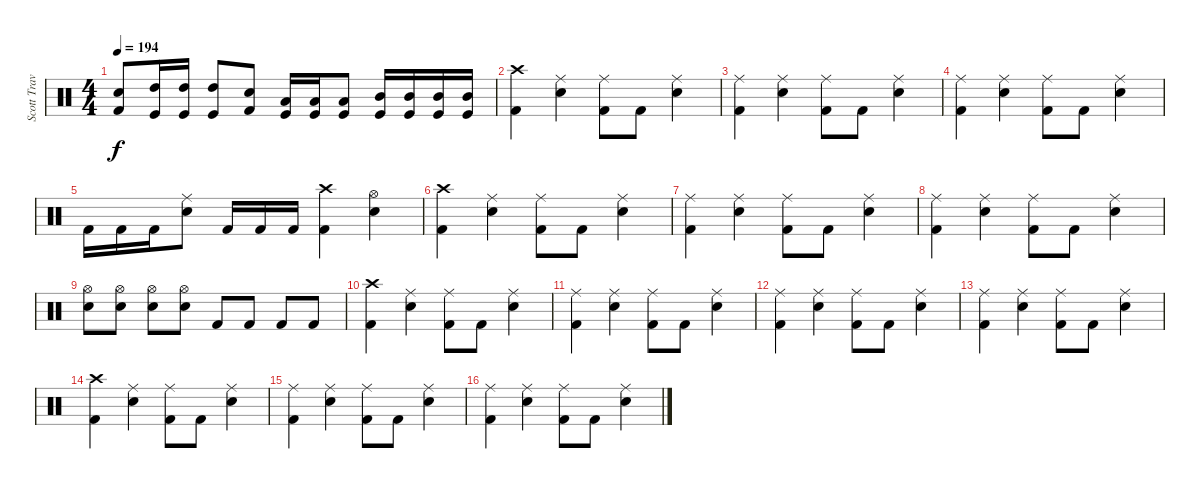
\track ("Scott Travis" "Scott Trav") {instrument percussion}
\staff {score}
\articulation defaults
\ts (4 4)
\tempo 194
\clef neutral
\ks c
("Kick (hit) 2" "Snare (hit) 2").8{dy f} ("High Tom (hit)" "Kick (hit)").16 ("High Tom (hit)" "Kick (hit)").16 ("High Tom (hit)" "Kick (hit)").8 ("Kick (hit) 2" "Snare (hit) 2").8 ("Low Tom (hit)" "Kick (hit)").16 ("Low Tom (hit)" "Kick (hit)").16 ("Low Tom (hit)" "Kick (hit)").8 ("Mid Tom (hit)" "Kick (hit)").16 ("Mid Tom (hit)" "Kick (hit)").16 ("Mid Tom (hit)" "Kick (hit)").16 ("Mid Tom (hit)" "Kick (hit)").16 |
("Kick (hit) 2" "Crash high (hit)").4 ("Ride (middle)" "Snare (hit) 2").4 ("Ride (middle)" "Kick (hit) 2").8 "Kick (hit) 2".8 ("Snare (hit) 2" "Ride (middle)").4 |
("Kick (hit) 2" "Ride (middle)").4 ("Ride (middle)" "Snare (hit) 2").4 ("Ride (middle)" "Kick (hit) 2").8 "Kick (hit) 2".8 ("Snare (hit) 2" "Ride (middle)").4 |
("Kick (hit) 2" "Ride (middle)").4 ("Ride (middle)" "Snare (hit) 2").4 ("Ride (middle)" "Kick (hit) 2").8 "Kick (hit) 2".8 ("Snare (hit) 2" "Ride (middle)").4 |
"Kick (hit) 2".16 "Kick (hit) 2".16 "Kick (hit) 2".16 ("Ride (middle)" "Snare (hit) 2").8 "Kick (hit) 2".16 "Kick (hit) 2".16 "Kick (hit) 2".16 ("Crash high (hit)" "Kick (hit) 2").4 ("Hi-Hat (open)" "Snare (hit) 2").4 |
("Kick (hit) 2" "Crash high (hit)").4 ("Ride (middle)" "Snare (hit) 2").4 ("Ride (middle)" "Kick (hit) 2").8 "Kick (hit) 2".8 ("Snare (hit) 2" "Ride (middle)").4 |
("Kick (hit) 2" "Ride (middle)").4 ("Ride (middle)" "Snare (hit) 2").4 ("Ride (middle)" "Kick (hit) 2").8 "Kick (hit) 2".8 ("Snare (hit) 2" "Ride (middle)").4 |
("Kick (hit) 2" "Ride (middle)").4 ("Ride (middle)" "Snare (hit) 2").4 ("Ride (middle)" "Kick (hit) 2").8 "Kick (hit) 2".8 ("Snare (hit) 2" "Ride (middle)").4 |
("Hi-Hat (open)" "Snare (hit) 2").8 ("Hi-Hat (open)" "Snare (hit) 2").8 ("Hi-Hat (open)" "Snare (hit) 2").8 ("Hi-Hat (open)" "Snare (hit) 2").8 "Kick (hit) 2".8 "Kick (hit) 2".8 "Kick (hit) 2".8 "Kick (hit) 2".8 |
("Kick (hit) 2" "Crash high (hit)").4 ("Ride (middle)" "Snare (hit) 2").4 ("Ride (middle)" "Kick (hit) 2").8 "Kick (hit) 2".8 ("Snare (hit) 2" "Ride (middle)").4 |
("Kick (hit) 2" "Ride (middle)").4 ("Ride (middle)" "Snare (hit) 2").4 ("Ride (middle)" "Kick (hit) 2").8 "Kick (hit) 2".8 ("Snare (hit) 2" "Ride (middle)").4 |
("Kick (hit) 2" "Ride (middle)").4 ("Ride (middle)" "Snare (hit) 2").4 ("Ride (middle)" "Kick (hit) 2").8 "Kick (hit) 2".8 ("Snare (hit) 2" "Ride (middle)").4 |
("Kick (hit) 2" "Ride (middle)").4 ("Ride (middle)" "Snare (hit) 2").4 ("Ride (middle)" "Kick (hit) 2").8 "Kick (hit) 2".8 ("Snare (hit) 2" "Ride (middle)").4 |
("Kick (hit) 2" "Crash high (hit)").4 ("Ride (middle)" "Snare (hit) 2").4 ("Ride (middle)" "Kick (hit) 2").8 "Kick (hit) 2".8 ("Snare (hit) 2" "Ride (middle)").4 |
("Kick (hit) 2" "Ride (middle)").4 ("Ride (middle)" "Snare (hit) 2").4 ("Ride (middle)" "Kick (hit) 2").8 "Kick (hit) 2".8 ("Snare (hit) 2" "Ride (middle)").4 |
("Kick (hit) 2" "Ride (middle)").4 ("Ride (middle)" "Snare (hit) 2").4 ("Ride (middle)" "Kick (hit) 2").8 "Kick (hit) 2".8 ("Snare (hit) 2" "Ride (middle)").4
